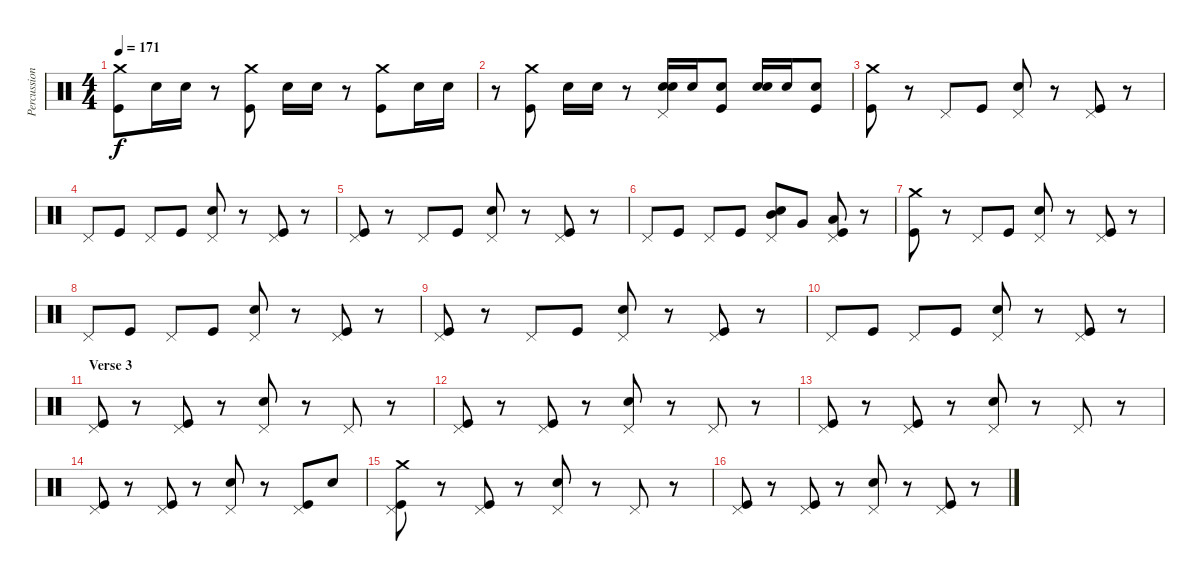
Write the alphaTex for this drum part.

\track ("Percussion" "Percussion") {instrument percussion}
\staff {score}
\articulation defaults
\ts (4 4)
\tempo 171
\clef neutral
\ks c
("Crash medium (hit)" "Kick (hit)").8{dy f} "Electric Snare (hit)".16 "Electric Snare (hit)".16 r.8 ("Crash medium (hit)" "Kick (hit)").8 "Electric Snare (hit)".16 "Electric Snare (hit)".16 r.8 ("Crash medium (hit)" "Kick (hit)").8 "Electric Snare (hit)".16 "Electric Snare (hit)".16 |
r.8 ("Crash medium (hit)" "Kick (hit)").8 "Electric Snare (hit)".16 "Electric Snare (hit)".16 r.8 ("Electric Snare (hit)" "Electric Snare (hit)" "Pedal Hi-Hat (hit)").16 "Electric Snare (hit)".16 ("Electric Snare (hit)" "Kick (hit)").8 ("Electric Snare (hit)" "Electric Snare (hit)").16 "Electric Snare (hit)".16 ("Electric Snare (hit)" "Kick (hit)").8 |
("Crash medium (hit)" "Kick (hit)").8 r.8 "Pedal Hi-Hat (hit)".8 "Kick (hit)".8 ("Pedal Hi-Hat (hit)" "Electric Snare (hit)").8 r.8 ("Pedal Hi-Hat (hit)" "Kick (hit)").8 r.8 |
"Pedal Hi-Hat (hit)".8 "Kick (hit)".8 "Pedal Hi-Hat (hit)".8 "Kick (hit)".8 ("Pedal Hi-Hat (hit)" "Electric Snare (hit)").8 r.8 ("Pedal Hi-Hat (hit)" "Kick (hit)").8 r.8 |
("Pedal Hi-Hat (hit)" "Kick (hit)").8 r.8 "Pedal Hi-Hat (hit)".8 "Kick (hit)".8 ("Pedal Hi-Hat (hit)" "Electric Snare (hit)").8 r.8 ("Pedal Hi-Hat (hit)" "Kick (hit)").8 r.8 |
"Pedal Hi-Hat (hit)".8 "Kick (hit)".8 "Pedal Hi-Hat (hit)".8 "Kick (hit)".8 ("Pedal Hi-Hat (hit)" "Electric Snare (hit)" "Mid Tom (hit)").8 "Very Low Tom (hit)".8 ("Pedal Hi-Hat (hit)" "Low Floor Tom (hit)" "Kick (hit)").8 r.8 |
("Crash medium (hit)" "Kick (hit)").8 r.8 "Pedal Hi-Hat (hit)".8 "Kick (hit)".8 ("Pedal Hi-Hat (hit)" "Electric Snare (hit)").8 r.8 ("Pedal Hi-Hat (hit)" "Kick (hit)").8 r.8 |
"Pedal Hi-Hat (hit)".8 "Kick (hit)".8 "Pedal Hi-Hat (hit)".8 "Kick (hit)".8 ("Pedal Hi-Hat (hit)" "Electric Snare (hit)").8 r.8 ("Pedal Hi-Hat (hit)" "Kick (hit)").8 r.8 |
("Pedal Hi-Hat (hit)" "Kick (hit)").8 r.8 "Pedal Hi-Hat (hit)".8 "Kick (hit)".8 ("Pedal Hi-Hat (hit)" "Electric Snare (hit)").8 r.8 ("Pedal Hi-Hat (hit)" "Kick (hit)").8 r.8 |
"Pedal Hi-Hat (hit)".8 "Kick (hit)".8 "Pedal Hi-Hat (hit)".8 "Kick (hit)".8 ("Pedal Hi-Hat (hit)" "Electric Snare (hit)").8 r.8 ("Pedal Hi-Hat (hit)" "Kick (hit)").8 r.8 |
\section ("" "Verse 3")
("Pedal Hi-Hat (hit)" "Kick (hit)").8 r.8 ("Pedal Hi-Hat (hit)" "Kick (hit)").8 r.8 ("Pedal Hi-Hat (hit)" "Electric Snare (hit)").8 r.8 "Pedal Hi-Hat (hit)".8 r.8 |
("Pedal Hi-Hat (hit)" "Kick (hit)").8 r.8 ("Pedal Hi-Hat (hit)" "Kick (hit)").8 r.8 ("Pedal Hi-Hat (hit)" "Electric Snare (hit)").8 r.8 "Pedal Hi-Hat (hit)".8 r.8 |
("Pedal Hi-Hat (hit)" "Kick (hit)").8 r.8 ("Pedal Hi-Hat (hit)" "Kick (hit)").8 r.8 ("Pedal Hi-Hat (hit)" "Electric Snare (hit)").8 r.8 "Pedal Hi-Hat (hit)".8 r.8 |
("Pedal Hi-Hat (hit)" "Kick (hit)").8 r.8 ("Pedal Hi-Hat (hit)" "Kick (hit)").8 r.8 ("Pedal Hi-Hat (hit)" "Electric Snare (hit)").8 r.8 ("Pedal Hi-Hat (hit)" "Kick (hit)").8 "Electric Snare (hit)".8 |
("Pedal Hi-Hat (hit)" "Crash medium (hit)" "Kick (hit)").8 r.8 ("Pedal Hi-Hat (hit)" "Kick (hit)").8 r.8 ("Pedal Hi-Hat (hit)" "Electric Snare (hit)").8 r.8 "Pedal Hi-Hat (hit)".8 r.8 |
("Pedal Hi-Hat (hit)" "Kick (hit)").8 r.8 ("Pedal Hi-Hat (hit)" "Kick (hit)").8 r.8 ("Pedal Hi-Hat (hit)" "Electric Snare (hit)").8 r.8 ("Pedal Hi-Hat (hit)" "Kick (hit)").8 r.8
